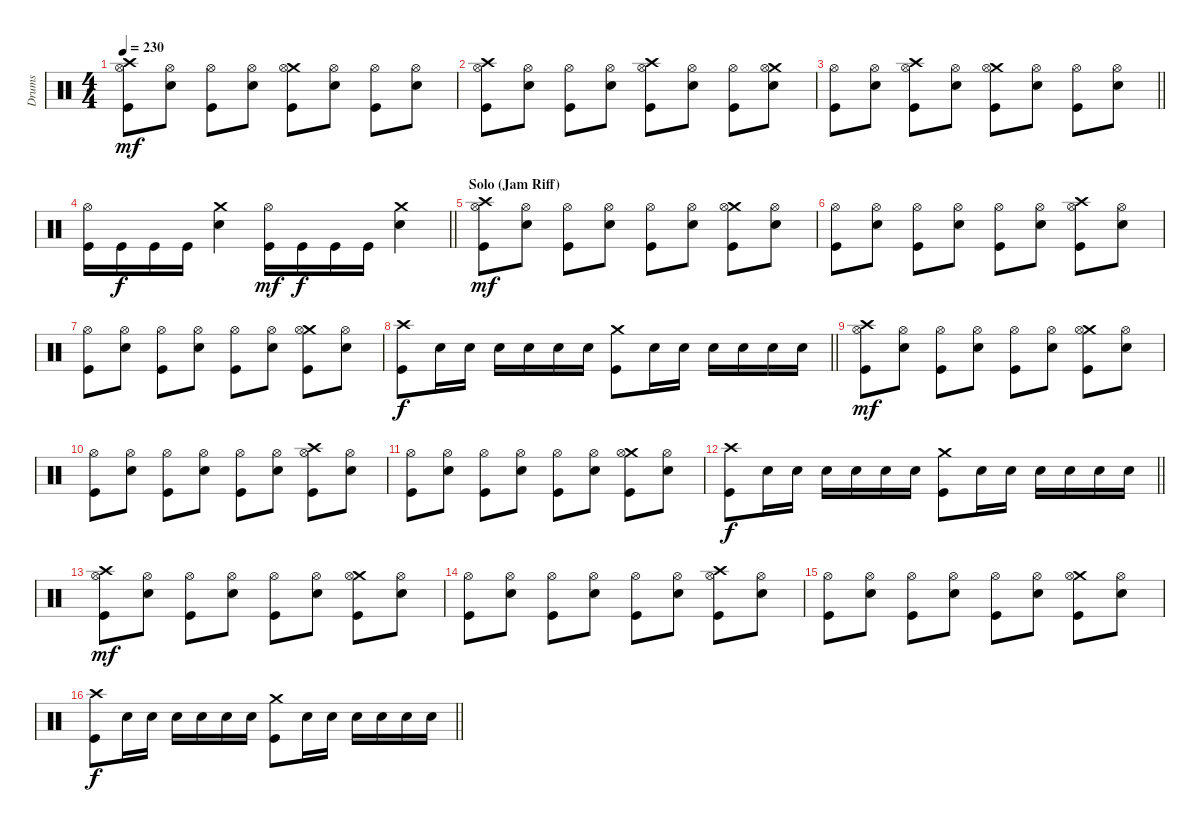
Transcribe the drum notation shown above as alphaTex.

\track ("Drums" "Drums") {instrument percussion}
\staff {score}
\articulation defaults
\ts (4 4)
\tempo 230
\clef neutral
\ks c
("Crash high (hit)" "Hi-Hat (open)" "Kick (hit)").8{dy mf} ("Hi-Hat (open)" "Electric Snare (hit)").8 ("Hi-Hat (open)" "Kick (hit)").8 ("Hi-Hat (open)" "Electric Snare (hit)").8 ("Crash medium (hit)" "Hi-Hat (open)" "Kick (hit)").8 ("Hi-Hat (open)" "Electric Snare (hit)").8 ("Hi-Hat (open)" "Kick (hit)").8 ("Hi-Hat (open)" "Electric Snare (hit)").8 |
("Crash high (hit)" "Hi-Hat (open)" "Kick (hit)").8 ("Hi-Hat (open)" "Electric Snare (hit)").8 ("Hi-Hat (open)" "Kick (hit)").8 ("Hi-Hat (open)" "Electric Snare (hit)").8 ("Crash high (hit)" "Hi-Hat (open)" "Kick (hit)").8 ("Hi-Hat (open)" "Electric Snare (hit)").8 ("Hi-Hat (open)" "Kick (hit)").8 ("Crash medium (hit)" "Hi-Hat (open)" "Electric Snare (hit)").8 |
\barLineRight lightlight
("Hi-Hat (open)" "Kick (hit)").8 ("Hi-Hat (open)" "Electric Snare (hit)").8 ("Crash high (hit)" "Hi-Hat (open)" "Kick (hit)").8 ("Hi-Hat (open)" "Electric Snare (hit)").8 ("Crash medium (hit)" "Hi-Hat (open)" "Kick (hit)").8 ("Hi-Hat (open)" "Electric Snare (hit)").8 ("Hi-Hat (open)" "Kick (hit)").8 ("Hi-Hat (open)" "Electric Snare (hit)").8 |
\barLineRight lightlight
("Hi-Hat (open)" "Kick (hit)").16 "Kick (hit)".16{dy f} "Kick (hit)".16 "Kick (hit)".16 ("Crash medium (hit)" "Electric Snare (hit)").4 ("Hi-Hat (open)" "Kick (hit)").16{dy mf} "Kick (hit)".16{dy f} "Kick (hit)".16 "Kick (hit)".16 ("Crash medium (hit)" "Electric Snare (hit)").4 |
\section ("" "Solo (Jam Riff)")
("Crash high (hit)" "Hi-Hat (open)" "Kick (hit)").8{dy mf} ("Hi-Hat (open)" "Electric Snare (hit)").8 ("Hi-Hat (open)" "Kick (hit)").8 ("Hi-Hat (open)" "Electric Snare (hit)").8 ("Hi-Hat (open)" "Kick (hit)").8 ("Hi-Hat (open)" "Electric Snare (hit)").8 ("Crash medium (hit)" "Hi-Hat (open)" "Kick (hit)").8 ("Hi-Hat (open)" "Electric Snare (hit)").8 |
("Hi-Hat (open)" "Kick (hit)").8 ("Hi-Hat (open)" "Electric Snare (hit)").8 ("Hi-Hat (open)" "Kick (hit)").8 ("Hi-Hat (open)" "Electric Snare (hit)").8 ("Hi-Hat (open)" "Kick (hit)").8 ("Hi-Hat (open)" "Electric Snare (hit)").8 ("Crash high (hit)" "Hi-Hat (open)" "Kick (hit)").8 ("Hi-Hat (open)" "Electric Snare (hit)").8 |
("Hi-Hat (open)" "Kick (hit)").8 ("Hi-Hat (open)" "Electric Snare (hit)").8 ("Hi-Hat (open)" "Kick (hit)").8 ("Hi-Hat (open)" "Electric Snare (hit)").8 ("Hi-Hat (open)" "Kick (hit)").8 ("Hi-Hat (open)" "Electric Snare (hit)").8 ("Crash medium (hit)" "Hi-Hat (open)" "Kick (hit)").8 ("Hi-Hat (open)" "Electric Snare (hit)").8 |
\barLineRight lightlight
("Crash high (hit)" "Kick (hit)").8{dy f} "Electric Snare (hit)".16 "Electric Snare (hit)".16 "Electric Snare (hit)".16 "Electric Snare (hit)".16 "Electric Snare (hit)".16 "Electric Snare (hit)".16 ("Crash medium (hit)" "Kick (hit)").8 "Electric Snare (hit)".16 "Electric Snare (hit)".16 "Electric Snare (hit)".16 "Electric Snare (hit)".16 "Electric Snare (hit)".16 "Electric Snare (hit)".16 |
("Crash high (hit)" "Hi-Hat (open)" "Kick (hit)").8{dy mf} ("Hi-Hat (open)" "Electric Snare (hit)").8 ("Hi-Hat (open)" "Kick (hit)").8 ("Hi-Hat (open)" "Electric Snare (hit)").8 ("Hi-Hat (open)" "Kick (hit)").8 ("Hi-Hat (open)" "Electric Snare (hit)").8 ("Crash medium (hit)" "Hi-Hat (open)" "Kick (hit)").8 ("Hi-Hat (open)" "Electric Snare (hit)").8 |
("Hi-Hat (open)" "Kick (hit)").8 ("Hi-Hat (open)" "Electric Snare (hit)").8 ("Hi-Hat (open)" "Kick (hit)").8 ("Hi-Hat (open)" "Electric Snare (hit)").8 ("Hi-Hat (open)" "Kick (hit)").8 ("Hi-Hat (open)" "Electric Snare (hit)").8 ("Crash high (hit)" "Hi-Hat (open)" "Kick (hit)").8 ("Hi-Hat (open)" "Electric Snare (hit)").8 |
("Hi-Hat (open)" "Kick (hit)").8 ("Hi-Hat (open)" "Electric Snare (hit)").8 ("Hi-Hat (open)" "Kick (hit)").8 ("Hi-Hat (open)" "Electric Snare (hit)").8 ("Hi-Hat (open)" "Kick (hit)").8 ("Hi-Hat (open)" "Electric Snare (hit)").8 ("Crash medium (hit)" "Hi-Hat (open)" "Kick (hit)").8 ("Hi-Hat (open)" "Electric Snare (hit)").8 |
\barLineRight lightlight
("Crash high (hit)" "Kick (hit)").8{dy f} "Electric Snare (hit)".16 "Electric Snare (hit)".16 "Electric Snare (hit)".16 "Electric Snare (hit)".16 "Electric Snare (hit)".16 "Electric Snare (hit)".16 ("Crash medium (hit)" "Kick (hit)").8 "Electric Snare (hit)".16 "Electric Snare (hit)".16 "Electric Snare (hit)".16 "Electric Snare (hit)".16 "Electric Snare (hit)".16 "Electric Snare (hit)".16 |
("Crash high (hit)" "Hi-Hat (open)" "Kick (hit)").8{dy mf} ("Hi-Hat (open)" "Electric Snare (hit)").8 ("Hi-Hat (open)" "Kick (hit)").8 ("Hi-Hat (open)" "Electric Snare (hit)").8 ("Hi-Hat (open)" "Kick (hit)").8 ("Hi-Hat (open)" "Electric Snare (hit)").8 ("Crash medium (hit)" "Hi-Hat (open)" "Kick (hit)").8 ("Hi-Hat (open)" "Electric Snare (hit)").8 |
("Hi-Hat (open)" "Kick (hit)").8 ("Hi-Hat (open)" "Electric Snare (hit)").8 ("Hi-Hat (open)" "Kick (hit)").8 ("Hi-Hat (open)" "Electric Snare (hit)").8 ("Hi-Hat (open)" "Kick (hit)").8 ("Hi-Hat (open)" "Electric Snare (hit)").8 ("Crash high (hit)" "Hi-Hat (open)" "Kick (hit)").8 ("Hi-Hat (open)" "Electric Snare (hit)").8 |
("Hi-Hat (open)" "Kick (hit)").8 ("Hi-Hat (open)" "Electric Snare (hit)").8 ("Hi-Hat (open)" "Kick (hit)").8 ("Hi-Hat (open)" "Electric Snare (hit)").8 ("Hi-Hat (open)" "Kick (hit)").8 ("Hi-Hat (open)" "Electric Snare (hit)").8 ("Crash medium (hit)" "Hi-Hat (open)" "Kick (hit)").8 ("Hi-Hat (open)" "Electric Snare (hit)").8 |
\barLineRight lightlight
("Crash high (hit)" "Kick (hit)").8{dy f} "Electric Snare (hit)".16 "Electric Snare (hit)".16 "Electric Snare (hit)".16 "Electric Snare (hit)".16 "Electric Snare (hit)".16 "Electric Snare (hit)".16 ("Crash medium (hit)" "Kick (hit)").8 "Electric Snare (hit)".16 "Electric Snare (hit)".16 "Electric Snare (hit)".16 "Electric Snare (hit)".16 "Electric Snare (hit)".16 "Electric Snare (hit)".16
